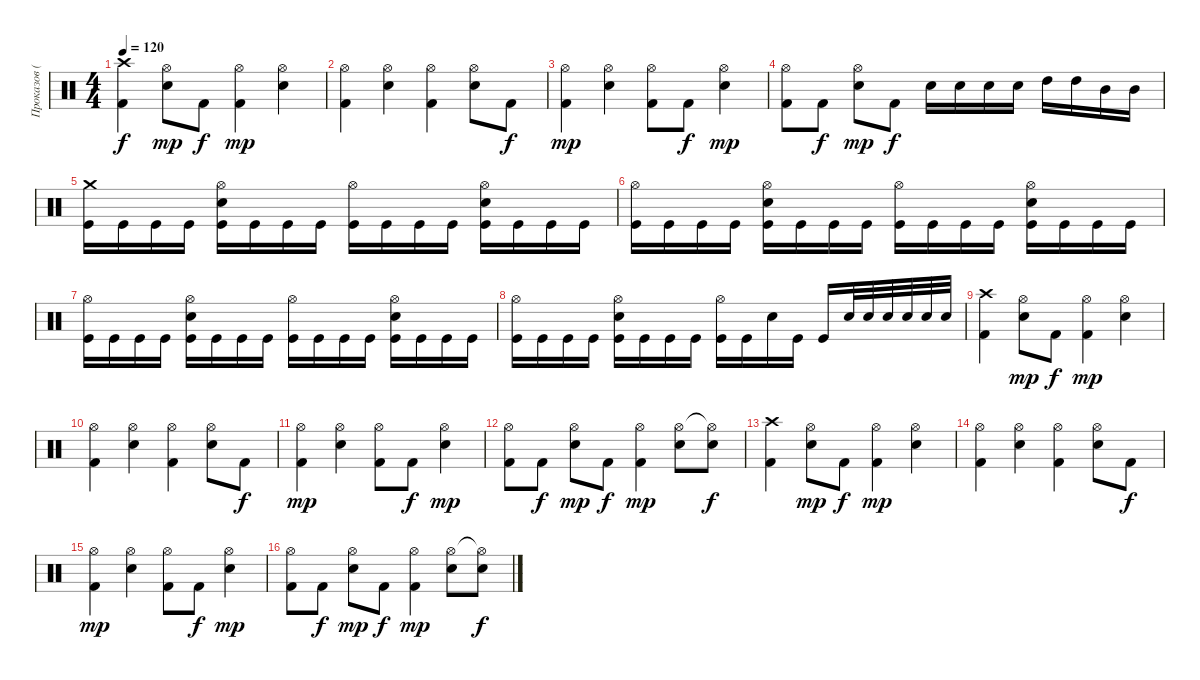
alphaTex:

\track ("Проказов (ударные)" "Проказов (") {instrument percussion}
\staff {score}
\articulation defaults
\ts (4 4)
\tempo 120
\clef neutral
\ks c
("Crash high (hit)" "Kick (hit) 2").4{dy f} ("Hi-Hat (open)" "Snare (hit) 2").8{dy mp} "Kick (hit) 2".8{dy f} ("Hi-Hat (open)" "Kick (hit) 2").4{dy mp} ("Hi-Hat (open)" "Snare (hit) 2").4 |
("Hi-Hat (open)" "Kick (hit) 2").4 ("Hi-Hat (open)" "Snare (hit) 2").4 ("Hi-Hat (open)" "Kick (hit) 2").4 ("Hi-Hat (open)" "Snare (hit) 2").8 "Kick (hit) 2".8{dy f} |
("Hi-Hat (open)" "Kick (hit) 2").4{dy mp} ("Hi-Hat (open)" "Snare (hit) 2").4 ("Hi-Hat (open)" "Kick (hit) 2").8 "Kick (hit) 2".8{dy f} ("Hi-Hat (open)" "Snare (hit) 2").4{dy mp} |
("Hi-Hat (open)" "Kick (hit) 2").8 "Kick (hit) 2".8{dy f} ("Hi-Hat (open)" "Snare (hit) 2").8{dy mp} "Kick (hit) 2".8{dy f} "Snare (hit) 2".16 "Snare (hit) 2".16 "Snare (hit) 2".16 "Snare (hit) 2".16 "High Tom (hit)".16 "High Tom (hit)".16 "Mid Tom (hit)".16 "Mid Tom (hit)".16 |
("Kick (hit)" "Crash medium (hit)").16 "Kick (hit)".16 "Kick (hit)".16 "Kick (hit)".16 ("Kick (hit)" "Snare (hit) 2" "Hi-Hat (open)").16 "Kick (hit)".16 "Kick (hit)".16 "Kick (hit)".16 ("Kick (hit)" "Hi-Hat (open)").16 "Kick (hit)".16 "Kick (hit)".16 "Kick (hit)".16 ("Kick (hit)" "Snare (hit) 2" "Hi-Hat (open)").16 "Kick (hit)".16 "Kick (hit)".16 "Kick (hit)".16 |
("Kick (hit)" "Hi-Hat (open)").16 "Kick (hit)".16 "Kick (hit)".16 "Kick (hit)".16 ("Kick (hit)" "Snare (hit) 2" "Hi-Hat (open)").16 "Kick (hit)".16 "Kick (hit)".16 "Kick (hit)".16 ("Kick (hit)" "Hi-Hat (open)").16 "Kick (hit)".16 "Kick (hit)".16 "Kick (hit)".16 ("Kick (hit)" "Snare (hit) 2" "Hi-Hat (open)").16 "Kick (hit)".16 "Kick (hit)".16 "Kick (hit)".16 |
("Kick (hit)" "Hi-Hat (open)").16 "Kick (hit)".16 "Kick (hit)".16 "Kick (hit)".16 ("Kick (hit)" "Snare (hit) 2" "Hi-Hat (open)").16 "Kick (hit)".16 "Kick (hit)".16 "Kick (hit)".16 ("Kick (hit)" "Hi-Hat (open)").16 "Kick (hit)".16 "Kick (hit)".16 "Kick (hit)".16 ("Kick (hit)" "Snare (hit) 2" "Hi-Hat (open)").16 "Kick (hit)".16 "Kick (hit)".16 "Kick (hit)".16 |
("Kick (hit)" "Hi-Hat (open)").16 "Kick (hit)".16 "Kick (hit)".16 "Kick (hit)".16 ("Kick (hit)" "Snare (hit) 2" "Hi-Hat (open)").16 "Kick (hit)".16 "Kick (hit)".16 "Kick (hit)".16 ("Kick (hit)" "Hi-Hat (open)").16 "Kick (hit)".16 "Snare (hit) 2".16 "Kick (hit)".16 "Kick (hit)".16 "Electric Snare (hit)".32 "Electric Snare (hit)".32 "Electric Snare (hit)".32 "Electric Snare (hit)".32 "Electric Snare (hit)".32 "Electric Snare (hit)".32 |
("Crash high (hit)" "Kick (hit) 2").4 ("Hi-Hat (open)" "Snare (hit) 2").8{dy mp} "Kick (hit) 2".8{dy f} ("Hi-Hat (open)" "Kick (hit) 2").4{dy mp} ("Hi-Hat (open)" "Snare (hit) 2").4 |
("Hi-Hat (open)" "Kick (hit) 2").4 ("Hi-Hat (open)" "Snare (hit) 2").4 ("Hi-Hat (open)" "Kick (hit) 2").4 ("Hi-Hat (open)" "Snare (hit) 2").8 "Kick (hit) 2".8{dy f} |
("Hi-Hat (open)" "Kick (hit) 2").4{dy mp} ("Hi-Hat (open)" "Snare (hit) 2").4 ("Hi-Hat (open)" "Kick (hit) 2").8 "Kick (hit) 2".8{dy f} ("Hi-Hat (open)" "Snare (hit) 2").4{dy mp} |
("Hi-Hat (open)" "Kick (hit) 2").8 "Kick (hit) 2".8{dy f} ("Hi-Hat (open)" "Snare (hit) 2").8{dy mp} "Kick (hit) 2".8{dy f} ("Hi-Hat (open)" "Kick (hit) 2").4{dy mp} ("Hi-Hat (open)" "Snare (hit) 2").8 ("Hi-Hat (open)"{t} "Snare (hit) 2").8{dy f} |
("Crash high (hit)" "Kick (hit) 2").4 ("Hi-Hat (open)" "Snare (hit) 2").8{dy mp} "Kick (hit) 2".8{dy f} ("Hi-Hat (open)" "Kick (hit) 2").4{dy mp} ("Hi-Hat (open)" "Snare (hit) 2").4 |
("Hi-Hat (open)" "Kick (hit) 2").4 ("Hi-Hat (open)" "Snare (hit) 2").4 ("Hi-Hat (open)" "Kick (hit) 2").4 ("Hi-Hat (open)" "Snare (hit) 2").8 "Kick (hit) 2".8{dy f} |
("Hi-Hat (open)" "Kick (hit) 2").4{dy mp} ("Hi-Hat (open)" "Snare (hit) 2").4 ("Hi-Hat (open)" "Kick (hit) 2").8 "Kick (hit) 2".8{dy f} ("Hi-Hat (open)" "Snare (hit) 2").4{dy mp} |
("Hi-Hat (open)" "Kick (hit) 2").8 "Kick (hit) 2".8{dy f} ("Hi-Hat (open)" "Snare (hit) 2").8{dy mp} "Kick (hit) 2".8{dy f} ("Hi-Hat (open)" "Kick (hit) 2").4{dy mp} ("Hi-Hat (open)" "Snare (hit) 2").8 ("Hi-Hat (open)"{t} "Snare (hit) 2").8{dy f}
